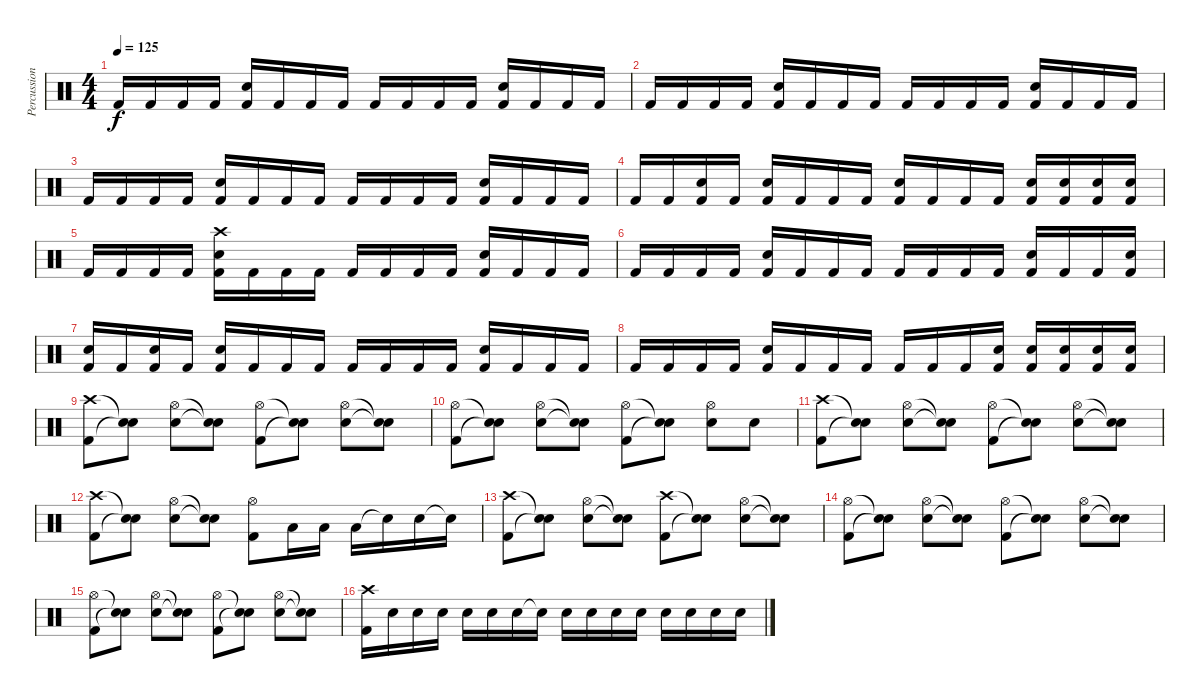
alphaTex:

\track ("Percussion" "Percussion") {instrument percussion}
\staff {score}
\articulation defaults
\ts (4 4)
\tempo 125
\clef neutral
\ks c "Kick (hit) 2".16{dy f} "Kick (hit) 2".16 "Kick (hit) 2".16 "Kick (hit) 2".16
("Kick (hit) 2" "Snare (hit) 2").16 "Kick (hit) 2".16 "Kick (hit) 2".16 "Kick (hit) 2".16 "Kick (hit) 2".16 "Kick (hit) 2".16 "Kick (hit) 2".16 "Kick (hit) 2".16 ("Kick (hit) 2" "Snare (hit) 2").16 "Kick (hit) 2".16 "Kick (hit) 2".16 "Kick (hit) 2".16 |
"Kick (hit) 2".16 "Kick (hit) 2".16 "Kick (hit) 2".16 "Kick (hit) 2".16 ("Kick (hit) 2" "Snare (hit) 2").16 "Kick (hit) 2".16 "Kick (hit) 2".16 "Kick (hit) 2".16 "Kick (hit) 2".16 "Kick (hit) 2".16 "Kick (hit) 2".16 "Kick (hit) 2".16 ("Kick (hit) 2" "Snare (hit) 2").16 "Kick (hit) 2".16 "Kick (hit) 2".16 "Kick (hit) 2".16 |
"Kick (hit) 2".16 "Kick (hit) 2".16 "Kick (hit) 2".16 "Kick (hit) 2".16 ("Kick (hit) 2" "Snare (hit) 2").16 "Kick (hit) 2".16 "Kick (hit) 2".16 "Kick (hit) 2".16 "Kick (hit) 2".16 "Kick (hit) 2".16 "Kick (hit) 2".16 "Kick (hit) 2".16 ("Kick (hit) 2" "Snare (hit) 2").16 "Kick (hit) 2".16 "Kick (hit) 2".16 "Kick (hit) 2".16 |
"Kick (hit) 2".16 "Kick (hit) 2".16 ("Kick (hit) 2" "Snare (hit) 2").16 "Kick (hit) 2".16 ("Kick (hit) 2" "Snare (hit) 2").16 "Kick (hit) 2".16 "Kick (hit) 2".16 "Kick (hit) 2".16 ("Kick (hit) 2" "Snare (hit) 2").16 "Kick (hit) 2".16 "Kick (hit) 2".16 "Kick (hit) 2".16 ("Kick (hit) 2" "Snare (hit) 2").16 ("Kick (hit) 2" "Snare (hit) 2").16 ("Kick (hit) 2" "Snare (hit) 2").16 ("Kick (hit) 2" "Snare (hit) 2").16 |
"Kick (hit) 2".16 "Kick (hit) 2".16 "Kick (hit) 2".16 "Kick (hit) 2".16 ("Kick (hit) 2" "Snare (hit) 2" "Crash high (hit)").16 "Kick (hit) 2".16 "Kick (hit) 2".16 "Kick (hit) 2".16 "Kick (hit) 2".16 "Kick (hit) 2".16 "Kick (hit) 2".16 "Kick (hit) 2".16 ("Kick (hit) 2" "Snare (hit) 2").16 "Kick (hit) 2".16 "Kick (hit) 2".16 "Kick (hit) 2".16 |
"Kick (hit) 2".16 "Kick (hit) 2".16 "Kick (hit) 2".16 "Kick (hit) 2".16 ("Kick (hit) 2" "Snare (hit) 2").16 "Kick (hit) 2".16 "Kick (hit) 2".16 "Kick (hit) 2".16 "Kick (hit) 2".16 "Kick (hit) 2".16 "Kick (hit) 2".16 "Kick (hit) 2".16 ("Kick (hit) 2" "Snare (hit) 2").16 "Kick (hit) 2".16 "Kick (hit) 2".16 ("Kick (hit) 2" "Snare (hit) 2").16 |
("Kick (hit) 2" "Snare (hit) 2").16 "Kick (hit) 2".16 ("Kick (hit) 2" "Snare (hit) 2").16 "Kick (hit) 2".16 ("Kick (hit) 2" "Snare (hit) 2").16 "Kick (hit) 2".16 "Kick (hit) 2".16 "Kick (hit) 2".16 "Kick (hit) 2".16 "Kick (hit) 2".16 "Kick (hit) 2".16 "Kick (hit) 2".16 ("Kick (hit) 2" "Snare (hit) 2").16 "Kick (hit) 2".16 "Kick (hit) 2".16 "Kick (hit) 2".16 |
"Kick (hit) 2".16 "Kick (hit) 2".16 "Kick (hit) 2".16 "Kick (hit) 2".16 ("Kick (hit) 2" "Snare (hit) 2").16 "Kick (hit) 2".16 "Kick (hit) 2".16 "Kick (hit) 2".16 "Kick (hit) 2".16 "Kick (hit) 2".16 "Kick (hit) 2".16 ("Kick (hit) 2" "Snare (hit) 2").16 ("Kick (hit) 2" "Snare (hit) 2").16 ("Kick (hit) 2" "Snare (hit) 2").16 ("Kick (hit) 2" "Snare (hit) 2").16 ("Kick (hit) 2" "Snare (hit) 2").16 |
("Kick (hit) 2" "Crash high (hit)").8 ("Snare (hit)"{t} "Snare (hit)"{t}).8 ("Snare (hit) 2" "Hi-Hat (open)").8 ("Snare (hit)"{t} "Snare (hit)"{t}).8 ("Kick (hit) 2" "Hi-Hat (open)").8 ("Snare (hit)"{t} "Snare (hit)"{t}).8 ("Snare (hit) 2" "Hi-Hat (open)").8 ("Snare (hit)"{t} "Snare (hit)"{t}).8 |
("Kick (hit) 2" "Hi-Hat (open)").8 ("Snare (hit)"{t} "Snare (hit)"{t}).8 ("Snare (hit) 2" "Hi-Hat (open)").8 ("Snare (hit)"{t} "Snare (hit)"{t}).8 ("Kick (hit) 2" "Hi-Hat (open)").8 ("Snare (hit)"{t} "Snare (hit)"{t}).8 ("Snare (hit) 2" "Hi-Hat (open)").8 "Snare (hit) 2".8 |
("Kick (hit) 2" "Crash high (hit)").8 ("Snare (hit)"{t} "Snare (hit)"{t}).8 ("Snare (hit) 2" "Hi-Hat (open)").8 ("Snare (hit)"{t} "Snare (hit)"{t}).8 ("Kick (hit) 2" "Hi-Hat (open)").8 ("Snare (hit)"{t} "Snare (hit)"{t}).8 ("Snare (hit) 2" "Hi-Hat (open)").8 ("Snare (hit)"{t} "Snare (hit)"{t}).8 |
("Kick (hit) 2" "Crash high (hit)").8 ("Snare (hit)"{t} "Snare (hit)"{t}).8 ("Snare (hit) 2" "Hi-Hat (open)").8 ("Snare (hit)"{t} "Snare (hit)"{t}).8 ("Kick (hit) 2" "Hi-Hat (open)").8 "Low Tom (hit)".16 "Low Tom (hit)".16 "Low Tom (hit)".16 "Snare (hit)"{t}.16 "Snare (hit) 2".16 "Snare (hit)"{t}.16 |
("Kick (hit) 2" "Crash high (hit)").8 ("Snare (hit)"{t} "Snare (hit)"{t}).8 ("Snare (hit) 2" "Hi-Hat (open)").8 ("Snare (hit)"{t} "Snare (hit)"{t}).8 ("Kick (hit) 2" "Crash high (hit)").8 ("Snare (hit)"{t} "Snare (hit)"{t}).8 ("Snare (hit) 2" "Hi-Hat (open)").8 ("Snare (hit)"{t} "Snare (hit)"{t}).8 |
("Kick (hit) 2" "Hi-Hat (open)").8 ("Snare (hit)"{t} "Snare (hit)"{t}).8 ("Snare (hit) 2" "Hi-Hat (open)").8 ("Snare (hit)"{t} "Snare (hit)"{t}).8 ("Kick (hit) 2" "Hi-Hat (open)").8 ("Snare (hit)"{t} "Snare (hit)"{t}).8 ("Snare (hit) 2" "Hi-Hat (open)").8 ("Snare (hit)"{t} "Snare (hit)"{t}).8 |
("Kick (hit) 2" "Hi-Hat (open)").8 ("Snare (hit)"{t} "Snare (hit)"{t}).8 ("Snare (hit) 2" "Hi-Hat (open)").8 ("Snare (hit)"{t} "Snare (hit)"{t}).8 ("Kick (hit) 2" "Hi-Hat (open)").8 ("Snare (hit)"{t} "Snare (hit)"{t}).8 ("Snare (hit) 2" "Hi-Hat (open)").8 ("Snare (hit)"{t} "Snare (hit)"{t}).8 |
("Kick (hit) 2" "Crash high (hit)").16 "Snare (hit) 2".16 "Snare (hit) 2".16 "Snare (hit) 2".16 "Snare (hit) 2".16 "Snare (hit) 2".16 "Snare (hit) 2".16 "Snare (hit)"{t}.16 "Snare (hit) 2".16 "Snare (hit) 2".16 "Snare (hit) 2".16 "Snare (hit) 2".16 "Snare (hit) 2".16 "Snare (hit) 2".16 "Snare (hit) 2".16 "Snare (hit) 2".16
